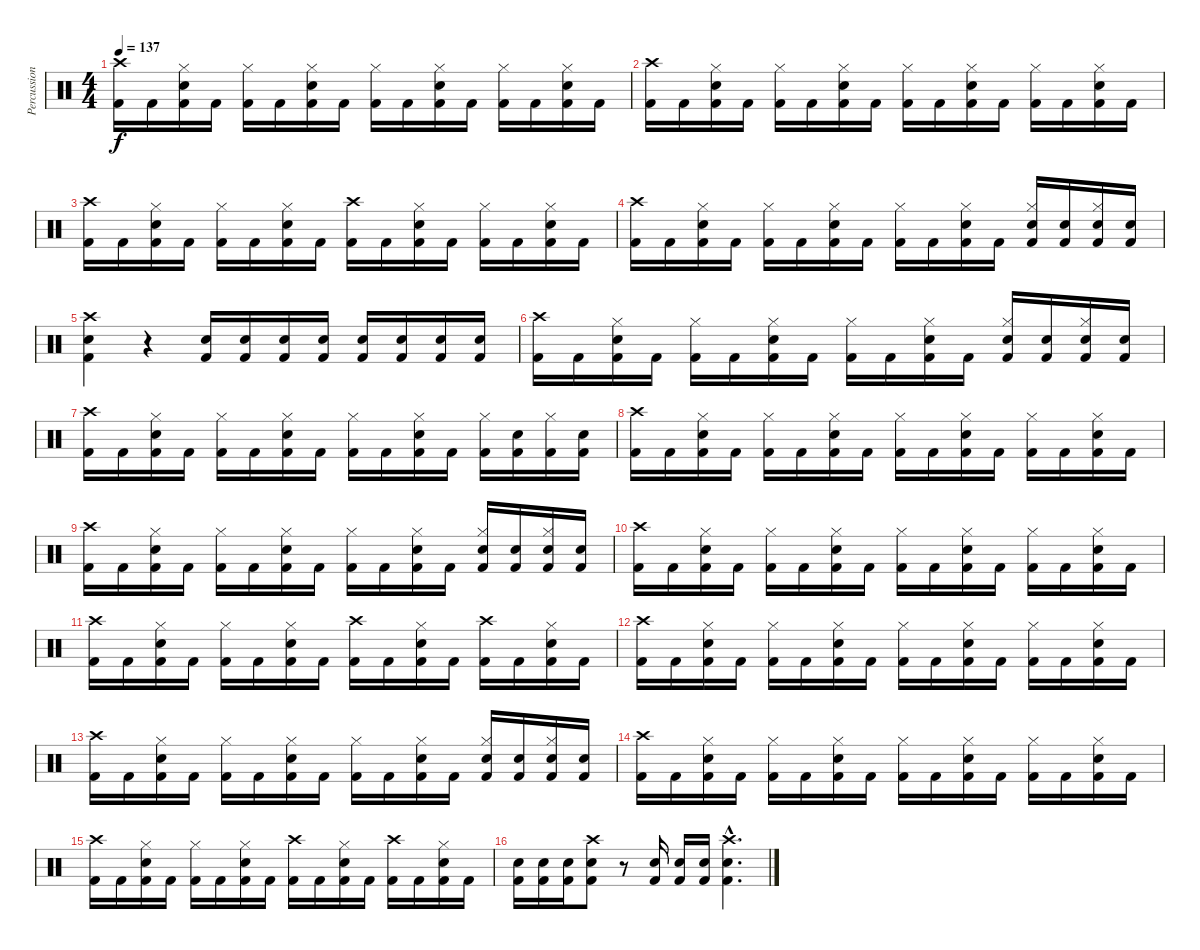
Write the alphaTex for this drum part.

\track ("Percussion" "Percussion") {instrument percussion}
\staff {score}
\articulation defaults
\ts (4 4)
\tempo 137
\clef neutral
\ks c
("Crash high (hit)" "Kick (hit) 2").16{dy f} "Kick (hit) 2".16 ("Hi-Hat (closed)" "Snare (hit) 2" "Kick (hit) 2").16 "Kick (hit) 2".16 ("Hi-Hat (closed)" "Kick (hit) 2").16 "Kick (hit) 2".16 ("Hi-Hat (closed)" "Snare (hit) 2" "Kick (hit) 2").16 "Kick (hit) 2".16 ("Hi-Hat (closed)" "Kick (hit) 2").16 "Kick (hit) 2".16 ("Hi-Hat (closed)" "Snare (hit) 2" "Kick (hit) 2").16 "Kick (hit) 2".16 ("Hi-Hat (closed)" "Kick (hit) 2").16 "Kick (hit) 2".16 ("Hi-Hat (closed)" "Snare (hit) 2" "Kick (hit) 2").16 "Kick (hit) 2".16 |
("Crash high (hit)" "Kick (hit) 2").16 "Kick (hit) 2".16 ("Hi-Hat (closed)" "Snare (hit) 2" "Kick (hit) 2").16 "Kick (hit) 2".16 ("Hi-Hat (closed)" "Kick (hit) 2").16 "Kick (hit) 2".16 ("Hi-Hat (closed)" "Snare (hit) 2" "Kick (hit) 2").16 "Kick (hit) 2".16 ("Hi-Hat (closed)" "Kick (hit) 2").16 "Kick (hit) 2".16 ("Hi-Hat (closed)" "Snare (hit) 2" "Kick (hit) 2").16 "Kick (hit) 2".16 ("Hi-Hat (closed)" "Kick (hit) 2").16 "Kick (hit) 2".16 ("Hi-Hat (closed)" "Snare (hit) 2" "Kick (hit) 2").16 "Kick (hit) 2".16 |
("Crash high (hit)" "Kick (hit) 2").16 "Kick (hit) 2".16 ("Hi-Hat (closed)" "Snare (hit) 2" "Kick (hit) 2").16 "Kick (hit) 2".16 ("Hi-Hat (closed)" "Kick (hit) 2").16 "Kick (hit) 2".16 ("Hi-Hat (closed)" "Snare (hit) 2" "Kick (hit) 2").16 "Kick (hit) 2".16 ("Crash high (hit)" "Kick (hit) 2").16 "Kick (hit) 2".16 ("Hi-Hat (closed)" "Snare (hit) 2" "Kick (hit) 2").16 "Kick (hit) 2".16 ("Hi-Hat (closed)" "Kick (hit) 2").16 "Kick (hit) 2".16 ("Hi-Hat (closed)" "Snare (hit) 2" "Kick (hit) 2").16 "Kick (hit) 2".16 |
("Crash high (hit)" "Kick (hit) 2").16 "Kick (hit) 2".16 ("Hi-Hat (closed)" "Snare (hit) 2" "Kick (hit) 2").16 "Kick (hit) 2".16 ("Hi-Hat (closed)" "Kick (hit) 2").16 "Kick (hit) 2".16 ("Hi-Hat (closed)" "Snare (hit) 2" "Kick (hit) 2").16 "Kick (hit) 2".16 ("Hi-Hat (closed)" "Kick (hit) 2").16 "Kick (hit) 2".16 ("Hi-Hat (closed)" "Snare (hit) 2" "Kick (hit) 2").16 "Kick (hit) 2".16 ("Hi-Hat (closed)" "Snare (hit) 2" "Kick (hit) 2").16 ("Snare (hit) 2" "Kick (hit) 2").16 ("Hi-Hat (closed)" "Snare (hit) 2" "Kick (hit) 2").16 ("Snare (hit) 2" "Kick (hit) 2").16 |
("Crash high (hit)" "Snare (hit) 2" "Kick (hit) 2").4 r.4 ("Snare (hit) 2" "Kick (hit) 2").16 ("Snare (hit) 2" "Kick (hit) 2").16 ("Snare (hit) 2" "Kick (hit) 2").16 ("Snare (hit) 2" "Kick (hit) 2").16 ("Snare (hit) 2" "Kick (hit) 2").16 ("Snare (hit) 2" "Kick (hit) 2").16 ("Snare (hit) 2" "Kick (hit) 2").16 ("Snare (hit) 2" "Kick (hit) 2").16 |
("Crash high (hit)" "Kick (hit) 2").16 "Kick (hit) 2".16 ("Hi-Hat (closed)" "Snare (hit) 2" "Kick (hit) 2").16 "Kick (hit) 2".16 ("Hi-Hat (closed)" "Kick (hit) 2").16 "Kick (hit) 2".16 ("Hi-Hat (closed)" "Snare (hit) 2" "Kick (hit) 2").16 "Kick (hit) 2".16 ("Hi-Hat (closed)" "Kick (hit) 2").16 "Kick (hit) 2".16 ("Hi-Hat (closed)" "Snare (hit) 2" "Kick (hit) 2").16 "Kick (hit) 2".16 ("Hi-Hat (closed)" "Snare (hit) 2" "Kick (hit) 2").16 ("Snare (hit) 2" "Kick (hit) 2").16 ("Hi-Hat (closed)" "Snare (hit) 2" "Kick (hit) 2").16 ("Snare (hit) 2" "Kick (hit) 2").16 |
("Crash high (hit)" "Kick (hit) 2").16 "Kick (hit) 2".16 ("Hi-Hat (closed)" "Snare (hit) 2" "Kick (hit) 2").16 "Kick (hit) 2".16 ("Hi-Hat (closed)" "Kick (hit) 2").16 "Kick (hit) 2".16 ("Hi-Hat (closed)" "Snare (hit) 2" "Kick (hit) 2").16 "Kick (hit) 2".16 ("Hi-Hat (closed)" "Kick (hit) 2").16 "Kick (hit) 2".16 ("Hi-Hat (closed)" "Snare (hit) 2" "Kick (hit) 2").16 "Kick (hit) 2".16 ("Hi-Hat (closed)" "Kick (hit) 2").16 ("Snare (hit) 2" "Kick (hit) 2").16 ("Hi-Hat (closed)" "Kick (hit) 2").16 ("Snare (hit) 2" "Kick (hit) 2").16 |
("Crash high (hit)" "Kick (hit) 2").16 "Kick (hit) 2".16 ("Hi-Hat (closed)" "Snare (hit) 2" "Kick (hit) 2").16 "Kick (hit) 2".16 ("Hi-Hat (closed)" "Kick (hit) 2").16 "Kick (hit) 2".16 ("Hi-Hat (closed)" "Snare (hit) 2" "Kick (hit) 2").16 "Kick (hit) 2".16 ("Hi-Hat (closed)" "Kick (hit) 2").16 "Kick (hit) 2".16 ("Hi-Hat (closed)" "Snare (hit) 2" "Kick (hit) 2").16 "Kick (hit) 2".16 ("Hi-Hat (closed)" "Kick (hit) 2").16 "Kick (hit) 2".16 ("Hi-Hat (closed)" "Snare (hit) 2" "Kick (hit) 2").16 "Kick (hit) 2".16 |
("Crash high (hit)" "Kick (hit) 2").16 "Kick (hit) 2".16 ("Hi-Hat (closed)" "Snare (hit) 2" "Kick (hit) 2").16 "Kick (hit) 2".16 ("Hi-Hat (closed)" "Kick (hit) 2").16 "Kick (hit) 2".16 ("Hi-Hat (closed)" "Snare (hit) 2" "Kick (hit) 2").16 "Kick (hit) 2".16 ("Hi-Hat (closed)" "Kick (hit) 2").16 "Kick (hit) 2".16 ("Hi-Hat (closed)" "Snare (hit) 2" "Kick (hit) 2").16 "Kick (hit) 2".16 ("Hi-Hat (closed)" "Snare (hit) 2" "Kick (hit) 2").16 ("Snare (hit) 2" "Kick (hit) 2").16 ("Hi-Hat (closed)" "Snare (hit) 2" "Kick (hit) 2").16 ("Snare (hit) 2" "Kick (hit) 2").16 |
("Crash high (hit)" "Kick (hit) 2").16 "Kick (hit) 2".16 ("Hi-Hat (closed)" "Snare (hit) 2" "Kick (hit) 2").16 "Kick (hit) 2".16 ("Hi-Hat (closed)" "Kick (hit) 2").16 "Kick (hit) 2".16 ("Hi-Hat (closed)" "Snare (hit) 2" "Kick (hit) 2").16 "Kick (hit) 2".16 ("Hi-Hat (closed)" "Kick (hit) 2").16 "Kick (hit) 2".16 ("Hi-Hat (closed)" "Snare (hit) 2" "Kick (hit) 2").16 "Kick (hit) 2".16 ("Hi-Hat (closed)" "Kick (hit) 2").16 "Kick (hit) 2".16 ("Hi-Hat (closed)" "Snare (hit) 2" "Kick (hit) 2").16 "Kick (hit) 2".16 |
("Crash high (hit)" "Kick (hit) 2").16 "Kick (hit) 2".16 ("Hi-Hat (closed)" "Snare (hit) 2" "Kick (hit) 2").16 "Kick (hit) 2".16 ("Hi-Hat (closed)" "Kick (hit) 2").16 "Kick (hit) 2".16 ("Hi-Hat (closed)" "Snare (hit) 2" "Kick (hit) 2").16 "Kick (hit) 2".16 ("Crash high (hit)" "Kick (hit) 2").16 "Kick (hit) 2".16 ("Hi-Hat (closed)" "Snare (hit) 2" "Kick (hit) 2").16 "Kick (hit) 2".16 ("Crash high (hit)" "Kick (hit) 2").16 "Kick (hit) 2".16 ("Hi-Hat (closed)" "Snare (hit) 2" "Kick (hit) 2").16 "Kick (hit) 2".16 |
("Crash high (hit)" "Kick (hit) 2").16 "Kick (hit) 2".16 ("Hi-Hat (closed)" "Snare (hit) 2" "Kick (hit) 2").16 "Kick (hit) 2".16 ("Hi-Hat (closed)" "Kick (hit) 2").16 "Kick (hit) 2".16 ("Hi-Hat (closed)" "Snare (hit) 2" "Kick (hit) 2").16 "Kick (hit) 2".16 ("Hi-Hat (closed)" "Kick (hit) 2").16 "Kick (hit) 2".16 ("Hi-Hat (closed)" "Snare (hit) 2" "Kick (hit) 2").16 "Kick (hit) 2".16 ("Hi-Hat (closed)" "Kick (hit) 2").16 "Kick (hit) 2".16 ("Hi-Hat (closed)" "Snare (hit) 2" "Kick (hit) 2").16 "Kick (hit) 2".16 |
("Crash high (hit)" "Kick (hit) 2").16 "Kick (hit) 2".16 ("Hi-Hat (closed)" "Snare (hit) 2" "Kick (hit) 2").16 "Kick (hit) 2".16 ("Hi-Hat (closed)" "Kick (hit) 2").16 "Kick (hit) 2".16 ("Hi-Hat (closed)" "Snare (hit) 2" "Kick (hit) 2").16 "Kick (hit) 2".16 ("Hi-Hat (closed)" "Kick (hit) 2").16 "Kick (hit) 2".16 ("Hi-Hat (closed)" "Snare (hit) 2" "Kick (hit) 2").16 "Kick (hit) 2".16 ("Hi-Hat (closed)" "Snare (hit) 2" "Kick (hit) 2").16 ("Snare (hit) 2" "Kick (hit) 2").16 ("Hi-Hat (closed)" "Snare (hit) 2" "Kick (hit) 2").16 ("Snare (hit) 2" "Kick (hit) 2").16 |
("Crash high (hit)" "Kick (hit) 2").16 "Kick (hit) 2".16 ("Hi-Hat (closed)" "Snare (hit) 2" "Kick (hit) 2").16 "Kick (hit) 2".16 ("Hi-Hat (closed)" "Kick (hit) 2").16 "Kick (hit) 2".16 ("Hi-Hat (closed)" "Snare (hit) 2" "Kick (hit) 2").16 "Kick (hit) 2".16 ("Hi-Hat (closed)" "Kick (hit) 2").16 "Kick (hit) 2".16 ("Hi-Hat (closed)" "Snare (hit) 2" "Kick (hit) 2").16 "Kick (hit) 2".16 ("Hi-Hat (closed)" "Kick (hit) 2").16 "Kick (hit) 2".16 ("Hi-Hat (closed)" "Snare (hit) 2" "Kick (hit) 2").16 "Kick (hit) 2".16 |
("Crash high (hit)" "Kick (hit) 2").16 "Kick (hit) 2".16 ("Hi-Hat (closed)" "Snare (hit) 2" "Kick (hit) 2").16 "Kick (hit) 2".16 ("Hi-Hat (closed)" "Kick (hit) 2").16 "Kick (hit) 2".16 ("Hi-Hat (closed)" "Snare (hit) 2" "Kick (hit) 2").16 "Kick (hit) 2".16 ("Crash high (hit)" "Kick (hit) 2").16 "Kick (hit) 2".16 ("Hi-Hat (closed)" "Snare (hit) 2" "Kick (hit) 2").16 "Kick (hit) 2".16 ("Crash high (hit)" "Kick (hit) 2").16 "Kick (hit) 2".16 ("Hi-Hat (closed)" "Snare (hit) 2" "Kick (hit) 2").16 "Kick (hit) 2".16 |
("Snare (hit) 2" "Kick (hit) 2").16 ("Snare (hit) 2" "Kick (hit) 2").16 ("Snare (hit) 2" "Kick (hit) 2").16 ("Crash high (hit)" "Snare (hit) 2" "Kick (hit) 2").8 r.8 ("Snare (hit) 2" "Kick (hit) 2").16 ("Snare (hit) 2" "Kick (hit) 2").16 ("Snare (hit) 2" "Kick (hit) 2").16 ("Crash high (hit)"{hac} "Snare (hit) 2"{hac} "Kick (hit) 2"{hac}).4{d}
